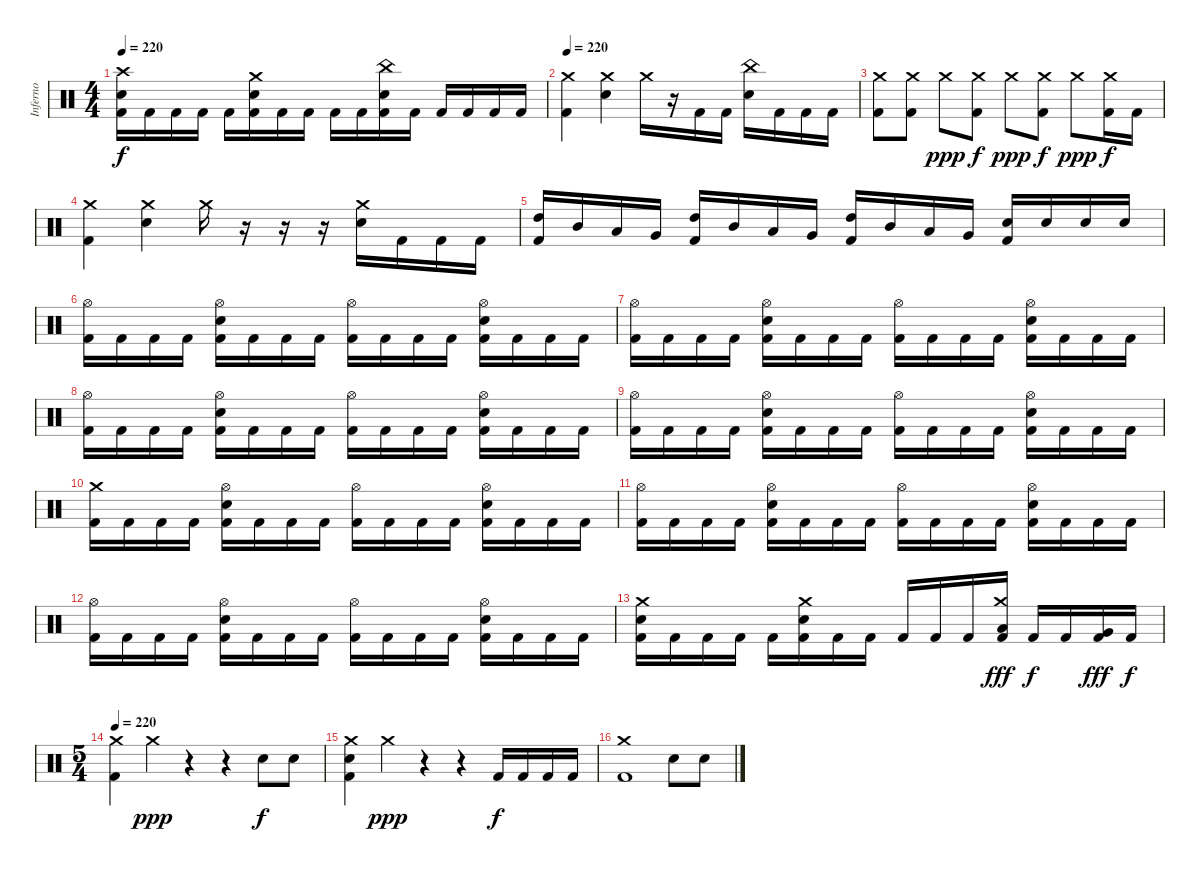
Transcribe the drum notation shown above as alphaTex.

\track ("Inferno" "Inferno") {instrument percussion}
\staff {score}
\articulation defaults
\ts (4 4)
\tempo 220
\clef neutral
\ks c
("Crash high (hit)" "Snare (hit) 2" "Kick (hit) 2").16{dy f} "Kick (hit) 2".16 "Kick (hit) 2".16 "Kick (hit) 2".16 "Kick (hit) 2".16 ("Crash medium (hit)" "Snare (hit) 2" "Kick (hit) 2").16 "Kick (hit) 2".16 "Kick (hit) 2".16 "Kick (hit) 2".16 "Kick (hit) 2".16 ("China (hit)" "Snare (hit) 2" "Kick (hit) 2").16 "Kick (hit) 2".16 "Kick (hit) 2".16 "Kick (hit) 2".16 "Kick (hit) 2".16 "Kick (hit) 2".16 |
\tempo 220
("Crash medium (hit)" "Kick (hit) 2").4 ("Crash medium (hit)" "Snare (hit) 2").4 "Crash medium (hit)".16 r.16 "Kick (hit) 2".16 "Kick (hit) 2".16 ("China (hit)" "Snare (hit) 2").16 "Kick (hit) 2".16 "Kick (hit) 2".16 "Kick (hit) 2".16 |
("Crash medium (hit)" "Kick (hit) 2").8 ("Crash medium (hit)" "Kick (hit) 2").8 "Crash medium (hit)".8{dy ppp} ("Crash medium (hit)" "Kick (hit) 2").8{dy f} "Crash medium (hit)".8{dy ppp} ("Crash medium (hit)" "Kick (hit) 2").8{dy f} "Crash medium (hit)".8{dy ppp} ("Crash medium (hit)" "Kick (hit) 2").16{dy f} "Kick (hit) 2".16 |
("Crash medium (hit)" "Kick (hit) 2").4 ("Crash medium (hit)" "Snare (hit) 2").4 "Crash medium (hit)".16 r.16 r.16 r.16 ("Crash medium (hit)" "Snare (hit) 2").16 "Kick (hit) 2".16 "Kick (hit) 2".16 "Kick (hit) 2".16 |
("High Tom (hit)" "Kick (hit) 2").16 "Mid Tom (hit)".16 "Low Tom (hit)".16 "Very Low Tom (hit)".16 ("High Tom (hit)" "Kick (hit) 2").16 "Mid Tom (hit)".16 "Low Tom (hit)".16 "Very Low Tom (hit)".16 ("High Tom (hit)" "Kick (hit) 2").16 "Mid Tom (hit)".16 "Low Tom (hit)".16 "Very Low Tom (hit)".16 ("Snare (hit) 2" "Kick (hit) 2").16 "Snare (hit) 2".16 "Snare (hit) 2".16 "Snare (hit) 2".16 |
("Hi-Hat (open)" "Kick (hit) 2").16 "Kick (hit) 2".16 "Kick (hit) 2".16 "Kick (hit) 2".16 ("Hi-Hat (open)" "Snare (hit) 2" "Kick (hit) 2").16 "Kick (hit) 2".16 "Kick (hit) 2".16 "Kick (hit) 2".16 ("Hi-Hat (open)" "Kick (hit) 2").16 "Kick (hit) 2".16 "Kick (hit) 2".16 "Kick (hit) 2".16 ("Hi-Hat (open)" "Snare (hit) 2" "Kick (hit) 2").16 "Kick (hit) 2".16 "Kick (hit) 2".16 "Kick (hit) 2".16 |
("Hi-Hat (open)" "Kick (hit) 2").16 "Kick (hit) 2".16 "Kick (hit) 2".16 "Kick (hit) 2".16 ("Hi-Hat (open)" "Snare (hit) 2" "Kick (hit) 2").16 "Kick (hit) 2".16 "Kick (hit) 2".16 "Kick (hit) 2".16 ("Hi-Hat (open)" "Kick (hit) 2").16 "Kick (hit) 2".16 "Kick (hit) 2".16 "Kick (hit) 2".16 ("Hi-Hat (open)" "Snare (hit) 2" "Kick (hit) 2").16 "Kick (hit) 2".16 "Kick (hit) 2".16 "Kick (hit) 2".16 |
("Hi-Hat (open)" "Kick (hit) 2").16 "Kick (hit) 2".16 "Kick (hit) 2".16 "Kick (hit) 2".16 ("Hi-Hat (open)" "Snare (hit) 2" "Kick (hit) 2").16 "Kick (hit) 2".16 "Kick (hit) 2".16 "Kick (hit) 2".16 ("Hi-Hat (open)" "Kick (hit) 2").16 "Kick (hit) 2".16 "Kick (hit) 2".16 "Kick (hit) 2".16 ("Hi-Hat (open)" "Snare (hit) 2" "Kick (hit) 2").16 "Kick (hit) 2".16 "Kick (hit) 2".16 "Kick (hit) 2".16 |
("Hi-Hat (open)" "Kick (hit) 2").16 "Kick (hit) 2".16 "Kick (hit) 2".16 "Kick (hit) 2".16 ("Hi-Hat (open)" "Snare (hit) 2" "Kick (hit) 2").16 "Kick (hit) 2".16 "Kick (hit) 2".16 "Kick (hit) 2".16 ("Hi-Hat (open)" "Kick (hit) 2").16 "Kick (hit) 2".16 "Kick (hit) 2".16 "Kick (hit) 2".16 ("Hi-Hat (open)" "Snare (hit) 2" "Kick (hit) 2").16 "Kick (hit) 2".16 "Kick (hit) 2".16 "Kick (hit) 2".16 |
("Crash medium (hit)" "Kick (hit) 2").16 "Kick (hit) 2".16 "Kick (hit) 2".16 "Kick (hit) 2".16 ("Hi-Hat (open)" "Snare (hit) 2" "Kick (hit) 2").16 "Kick (hit) 2".16 "Kick (hit) 2".16 "Kick (hit) 2".16 ("Hi-Hat (open)" "Kick (hit) 2").16 "Kick (hit) 2".16 "Kick (hit) 2".16 "Kick (hit) 2".16 ("Hi-Hat (open)" "Snare (hit) 2" "Kick (hit) 2").16 "Kick (hit) 2".16 "Kick (hit) 2".16 "Kick (hit) 2".16 |
("Hi-Hat (open)" "Kick (hit) 2").16 "Kick (hit) 2".16 "Kick (hit) 2".16 "Kick (hit) 2".16 ("Hi-Hat (open)" "Snare (hit) 2" "Kick (hit) 2").16 "Kick (hit) 2".16 "Kick (hit) 2".16 "Kick (hit) 2".16 ("Hi-Hat (open)" "Kick (hit) 2").16 "Kick (hit) 2".16 "Kick (hit) 2".16 "Kick (hit) 2".16 ("Hi-Hat (open)" "Snare (hit) 2" "Kick (hit) 2").16 "Kick (hit) 2".16 "Kick (hit) 2".16 "Kick (hit) 2".16 |
("Hi-Hat (open)" "Kick (hit) 2").16 "Kick (hit) 2".16 "Kick (hit) 2".16 "Kick (hit) 2".16 ("Hi-Hat (open)" "Snare (hit) 2" "Kick (hit) 2").16 "Kick (hit) 2".16 "Kick (hit) 2".16 "Kick (hit) 2".16 ("Hi-Hat (open)" "Kick (hit) 2").16 "Kick (hit) 2".16 "Kick (hit) 2".16 "Kick (hit) 2".16 ("Hi-Hat (open)" "Snare (hit) 2" "Kick (hit) 2").16 "Kick (hit) 2".16 "Kick (hit) 2".16 "Kick (hit) 2".16 |
("Crash medium (hit)" "Snare (hit) 2" "Kick (hit) 2").16 "Kick (hit) 2".16 "Kick (hit) 2".16 "Kick (hit) 2".16 "Kick (hit) 2".16 ("Crash medium (hit)" "Snare (hit) 2" "Kick (hit) 2").16 "Kick (hit) 2".16 "Kick (hit) 2".16 "Kick (hit) 2".16 "Kick (hit) 2".16 "Kick (hit) 2".16 ("Crash medium (hit)" "Low Tom (hit)" "Kick (hit) 2").16{dy fff} "Kick (hit) 2".16{dy f} "Kick (hit) 2".16 ("Very Low Tom (hit)" "Kick (hit) 2").16{dy fff} "Kick (hit) 2".16{dy f} |
\ts (5 4)
\tempo 220
("Crash medium (hit)" "Kick (hit) 2").4 "Crash medium (hit)".4{dy ppp} r.4 r.4 "Snare (hit) 2".8{dy f} "Snare (hit) 2".8 |
("Crash medium (hit)" "Snare (hit) 2" "Kick (hit) 2").4 "Crash medium (hit)".4{dy ppp} r.4 r.4 "Kick (hit) 2".16{dy f} "Kick (hit) 2".16 "Kick (hit) 2".16 "Kick (hit) 2".16 |
("Crash medium (hit)" "Kick (hit) 2").1 "Snare (hit) 2".8 "Snare (hit) 2".8
